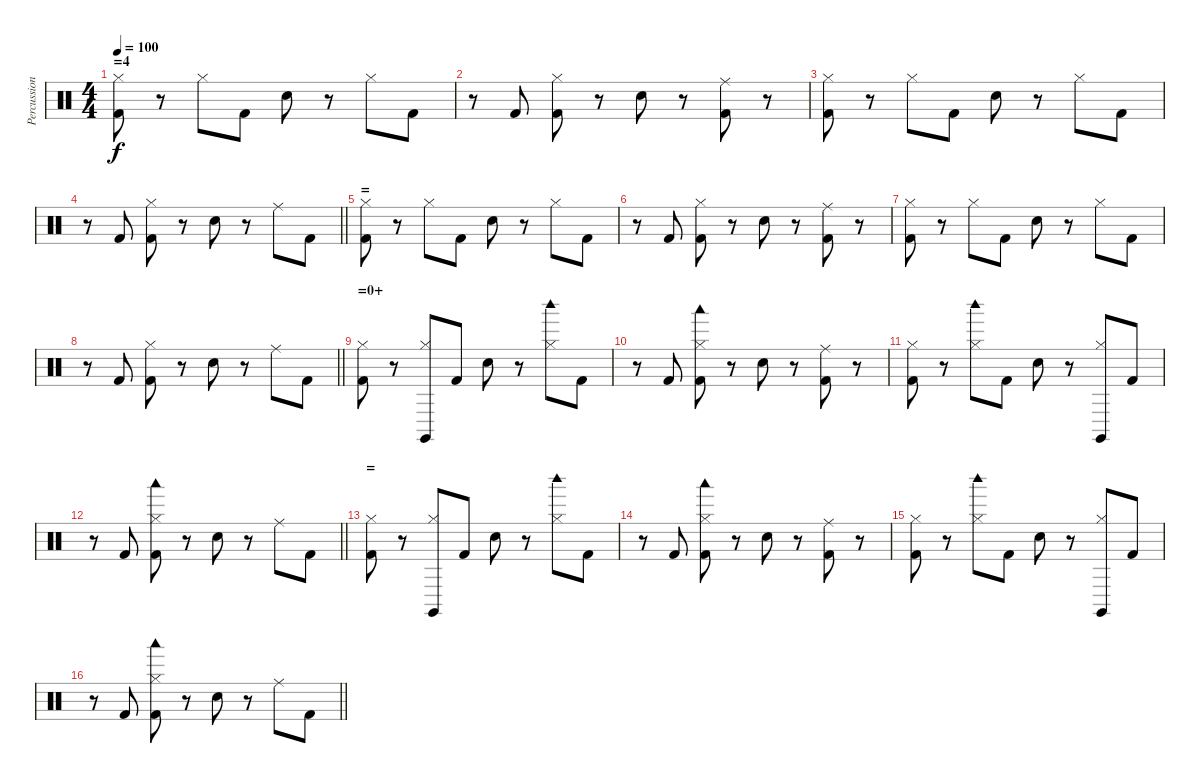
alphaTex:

\track ("Percussion" "Percussion") {instrument percussion}
\staff {score}
\articulation defaults
\ts (4 4)
\section ("" "=4")
\tempo 100
\clef neutral
\ks c
("Kick (hit) 2" "Hi-Hat (closed)").8{dy f} r.8 "Hi-Hat (closed)".8 "Kick (hit) 2".8 "Electric Snare (hit)".8 r.8 "Hi-Hat (closed)".8 "Kick (hit) 2".8 |
r.8 "Kick (hit) 2".8 ("Kick (hit) 2" "Hi-Hat (closed)").8 r.8 "Electric Snare (hit)".8 r.8 ("Kick (hit) 2" "Ride (middle)").8 r.8 |
("Kick (hit) 2" "Hi-Hat (closed)").8 r.8 "Hi-Hat (closed)".8 "Kick (hit) 2".8 "Electric Snare (hit)".8 r.8 "Hi-Hat (closed)".8 "Kick (hit) 2".8 |
\barLineRight lightlight
r.8 "Kick (hit) 2".8 ("Kick (hit) 2" "Hi-Hat (closed)").8 r.8 "Electric Snare (hit)".8 r.8 "Ride (middle)".8 "Kick (hit) 2".8 |
\section ("" "=")
("Kick (hit) 2" "Hi-Hat (closed)").8 r.8 "Hi-Hat (closed)".8 "Kick (hit) 2".8 "Electric Snare (hit)".8 r.8 "Hi-Hat (closed)".8 "Kick (hit) 2".8 |
r.8 "Kick (hit) 2".8 ("Kick (hit) 2" "Hi-Hat (closed)").8 r.8 "Electric Snare (hit)".8 r.8 ("Kick (hit) 2" "Ride (middle)").8 r.8 |
("Kick (hit) 2" "Hi-Hat (closed)").8 r.8 "Hi-Hat (closed)".8 "Kick (hit) 2".8 "Electric Snare (hit)".8 r.8 "Hi-Hat (closed)".8 "Kick (hit) 2".8 |
\barLineRight lightlight
r.8 "Kick (hit) 2".8 ("Kick (hit) 2" "Hi-Hat (closed)").8 r.8 "Electric Snare (hit)".8 r.8 "Ride (middle)".8 "Kick (hit) 2".8 |
\section ("" "=0+")
("Kick (hit) 2" "Hi-Hat (closed)").8 r.8 ("Claves (hit)" "Hi-Hat (closed)").8 "Kick (hit) 2".8 "Electric Snare (hit)".8 r.8 ("Woodblock high (hit)" "Hi-Hat (closed)").8 "Kick (hit) 2".8 |
r.8 "Kick (hit) 2".8 ("Kick (hit) 2" "Woodblock low (hit)" "Hi-Hat (closed)").8 r.8 "Electric Snare (hit)".8 r.8 ("Kick (hit) 2" "Ride (middle)").8 r.8 |
("Kick (hit) 2" "Hi-Hat (closed)").8 r.8 ("Woodblock high (hit)" "Hi-Hat (closed)").8 "Kick (hit) 2".8 "Electric Snare (hit)".8 r.8 ("Claves (hit)" "Hi-Hat (closed)").8 "Kick (hit) 2".8 |
\barLineRight lightlight
r.8 "Kick (hit) 2".8 ("Kick (hit) 2" "Woodblock low (hit)" "Hi-Hat (closed)").8 r.8 "Electric Snare (hit)".8 r.8 "Ride (middle)".8 "Kick (hit) 2".8 |
\section ("" "=")
("Kick (hit) 2" "Hi-Hat (closed)").8 r.8 ("Claves (hit)" "Hi-Hat (closed)").8 "Kick (hit) 2".8 "Electric Snare (hit)".8 r.8 ("Woodblock high (hit)" "Hi-Hat (closed)").8 "Kick (hit) 2".8 |
r.8 "Kick (hit) 2".8 ("Kick (hit) 2" "Woodblock low (hit)" "Hi-Hat (closed)").8 r.8 "Electric Snare (hit)".8 r.8 ("Kick (hit) 2" "Ride (middle)").8 r.8 |
("Kick (hit) 2" "Hi-Hat (closed)").8 r.8 ("Woodblock high (hit)" "Hi-Hat (closed)").8 "Kick (hit) 2".8 "Electric Snare (hit)".8 r.8 ("Claves (hit)" "Hi-Hat (closed)").8 "Kick (hit) 2".8 |
\barLineRight lightlight
r.8 "Kick (hit) 2".8 ("Kick (hit) 2" "Woodblock low (hit)" "Hi-Hat (closed)").8 r.8 "Electric Snare (hit)".8 r.8 "Ride (middle)".8 "Kick (hit) 2".8
